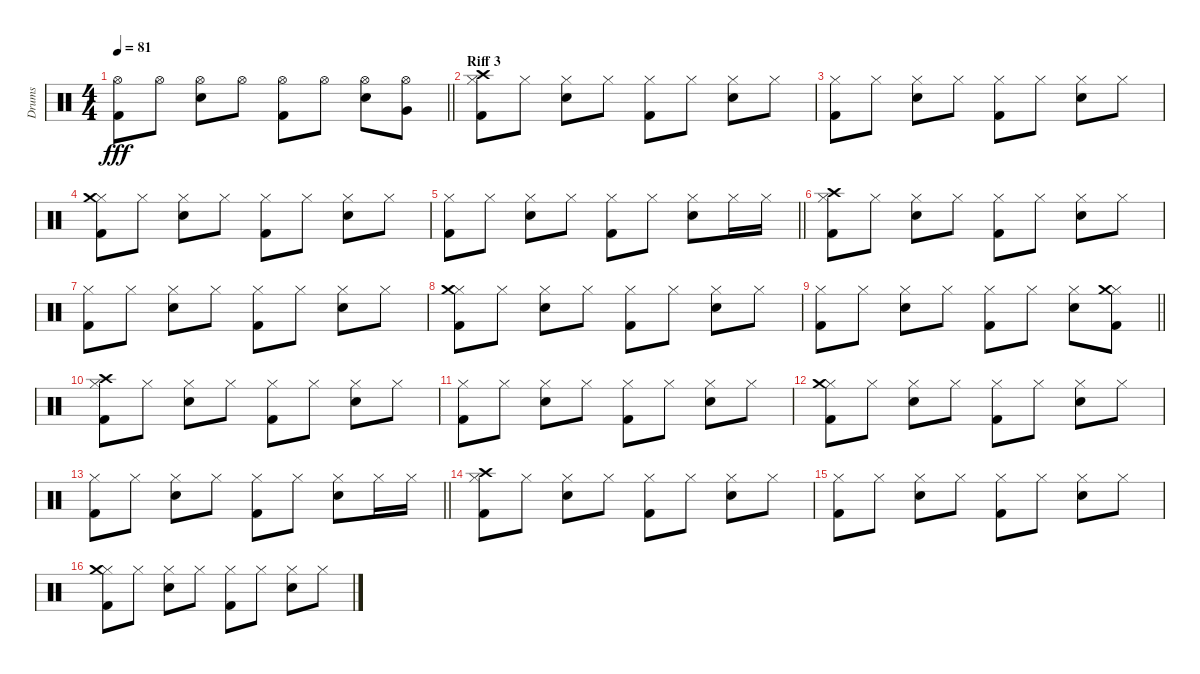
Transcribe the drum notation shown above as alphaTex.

\track ("Drums" "Drums") {instrument percussion}
\staff {score}
\articulation defaults
\ts (4 4)
\tempo 81
\clef neutral
\barLineRight lightlight
\ks c
("Hi-Hat (open)" "Kick (hit) 2").8{dy fff} "Hi-Hat (open)".8 ("Hi-Hat (open)" "Electric Snare (hit)").8 "Hi-Hat (open)".8 ("Hi-Hat (open)" "Kick (hit) 2").8 "Hi-Hat (open)".8 ("Hi-Hat (open)" "Electric Snare (hit)").8 ("Hi-Hat (open)" "Very Low Tom (hit)").8 |
\section ("" "Riff 3")
("Hi-Hat (closed)" "Crash high (hit)" "Kick (hit) 2").8 "Hi-Hat (closed)".8 ("Hi-Hat (closed)" "Electric Snare (hit)").8 "Hi-Hat (closed)".8 ("Hi-Hat (closed)" "Kick (hit) 2").8 "Hi-Hat (closed)".8 ("Hi-Hat (closed)" "Electric Snare (hit)").8 "Hi-Hat (closed)".8 |
("Hi-Hat (closed)" "Kick (hit) 2").8 "Hi-Hat (closed)".8 ("Hi-Hat (closed)" "Electric Snare (hit)").8 "Hi-Hat (closed)".8 ("Hi-Hat (closed)" "Kick (hit) 2").8 "Hi-Hat (closed)".8 ("Hi-Hat (closed)" "Electric Snare (hit)").8 "Hi-Hat (closed)".8 |
("Hi-Hat (closed)" "Crash medium (hit)" "Kick (hit) 2").8 "Hi-Hat (closed)".8 ("Hi-Hat (closed)" "Electric Snare (hit)").8 "Hi-Hat (closed)".8 ("Hi-Hat (closed)" "Kick (hit) 2").8 "Hi-Hat (closed)".8 ("Hi-Hat (closed)" "Electric Snare (hit)").8 "Hi-Hat (closed)".8 |
\barLineRight lightlight
("Hi-Hat (closed)" "Kick (hit) 2").8 "Hi-Hat (closed)".8 ("Hi-Hat (closed)" "Electric Snare (hit)").8 "Hi-Hat (closed)".8 ("Hi-Hat (closed)" "Kick (hit) 2").8 "Hi-Hat (closed)".8 ("Hi-Hat (closed)" "Electric Snare (hit)").8 "Hi-Hat (closed)".16 "Hi-Hat (closed)".16 |
("Hi-Hat (closed)" "Crash high (hit)" "Kick (hit) 2").8 "Hi-Hat (closed)".8 ("Hi-Hat (closed)" "Electric Snare (hit)").8 "Hi-Hat (closed)".8 ("Hi-Hat (closed)" "Kick (hit) 2").8 "Hi-Hat (closed)".8 ("Hi-Hat (closed)" "Electric Snare (hit)").8 "Hi-Hat (closed)".8 |
("Hi-Hat (closed)" "Kick (hit) 2").8 "Hi-Hat (closed)".8 ("Hi-Hat (closed)" "Electric Snare (hit)").8 "Hi-Hat (closed)".8 ("Hi-Hat (closed)" "Kick (hit) 2").8 "Hi-Hat (closed)".8 ("Hi-Hat (closed)" "Electric Snare (hit)").8 "Hi-Hat (closed)".8 |
("Hi-Hat (closed)" "Crash medium (hit)" "Kick (hit) 2").8 "Hi-Hat (closed)".8 ("Hi-Hat (closed)" "Electric Snare (hit)").8 "Hi-Hat (closed)".8 ("Hi-Hat (closed)" "Kick (hit) 2").8 "Hi-Hat (closed)".8 ("Hi-Hat (closed)" "Electric Snare (hit)").8 "Hi-Hat (closed)".8 |
\barLineRight lightlight
("Hi-Hat (closed)" "Kick (hit) 2").8 "Hi-Hat (closed)".8 ("Hi-Hat (closed)" "Electric Snare (hit)").8 "Hi-Hat (closed)".8 ("Hi-Hat (closed)" "Kick (hit) 2").8 "Hi-Hat (closed)".8 ("Hi-Hat (closed)" "Electric Snare (hit)").8 ("Hi-Hat (closed)" "Crash medium (hit)" "Kick (hit) 2").8 |
("Hi-Hat (closed)" "Crash high (hit)" "Kick (hit) 2").8 "Hi-Hat (closed)".8 ("Hi-Hat (closed)" "Electric Snare (hit)").8 "Hi-Hat (closed)".8 ("Hi-Hat (closed)" "Kick (hit) 2").8 "Hi-Hat (closed)".8 ("Hi-Hat (closed)" "Electric Snare (hit)").8 "Hi-Hat (closed)".8 |
("Hi-Hat (closed)" "Kick (hit) 2").8 "Hi-Hat (closed)".8 ("Hi-Hat (closed)" "Electric Snare (hit)").8 "Hi-Hat (closed)".8 ("Hi-Hat (closed)" "Kick (hit) 2").8 "Hi-Hat (closed)".8 ("Hi-Hat (closed)" "Electric Snare (hit)").8 "Hi-Hat (closed)".8 |
("Hi-Hat (closed)" "Crash medium (hit)" "Kick (hit) 2").8 "Hi-Hat (closed)".8 ("Hi-Hat (closed)" "Electric Snare (hit)").8 "Hi-Hat (closed)".8 ("Hi-Hat (closed)" "Kick (hit) 2").8 "Hi-Hat (closed)".8 ("Hi-Hat (closed)" "Electric Snare (hit)").8 "Hi-Hat (closed)".8 |
\barLineRight lightlight
("Hi-Hat (closed)" "Kick (hit) 2").8 "Hi-Hat (closed)".8 ("Hi-Hat (closed)" "Electric Snare (hit)").8 "Hi-Hat (closed)".8 ("Hi-Hat (closed)" "Kick (hit) 2").8 "Hi-Hat (closed)".8 ("Hi-Hat (closed)" "Electric Snare (hit)").8 "Hi-Hat (closed)".16 "Hi-Hat (closed)".16 |
("Hi-Hat (closed)" "Crash high (hit)" "Kick (hit) 2").8 "Hi-Hat (closed)".8 ("Hi-Hat (closed)" "Electric Snare (hit)").8 "Hi-Hat (closed)".8 ("Hi-Hat (closed)" "Kick (hit) 2").8 "Hi-Hat (closed)".8 ("Hi-Hat (closed)" "Electric Snare (hit)").8 "Hi-Hat (closed)".8 |
("Hi-Hat (closed)" "Kick (hit) 2").8 "Hi-Hat (closed)".8 ("Hi-Hat (closed)" "Electric Snare (hit)").8 "Hi-Hat (closed)".8 ("Hi-Hat (closed)" "Kick (hit) 2").8 "Hi-Hat (closed)".8 ("Hi-Hat (closed)" "Electric Snare (hit)").8 "Hi-Hat (closed)".8 |
("Hi-Hat (closed)" "Crash medium (hit)" "Kick (hit) 2").8 "Hi-Hat (closed)".8 ("Hi-Hat (closed)" "Electric Snare (hit)").8 "Hi-Hat (closed)".8 ("Hi-Hat (closed)" "Kick (hit) 2").8 "Hi-Hat (closed)".8 ("Hi-Hat (closed)" "Electric Snare (hit)").8 "Hi-Hat (closed)".8
